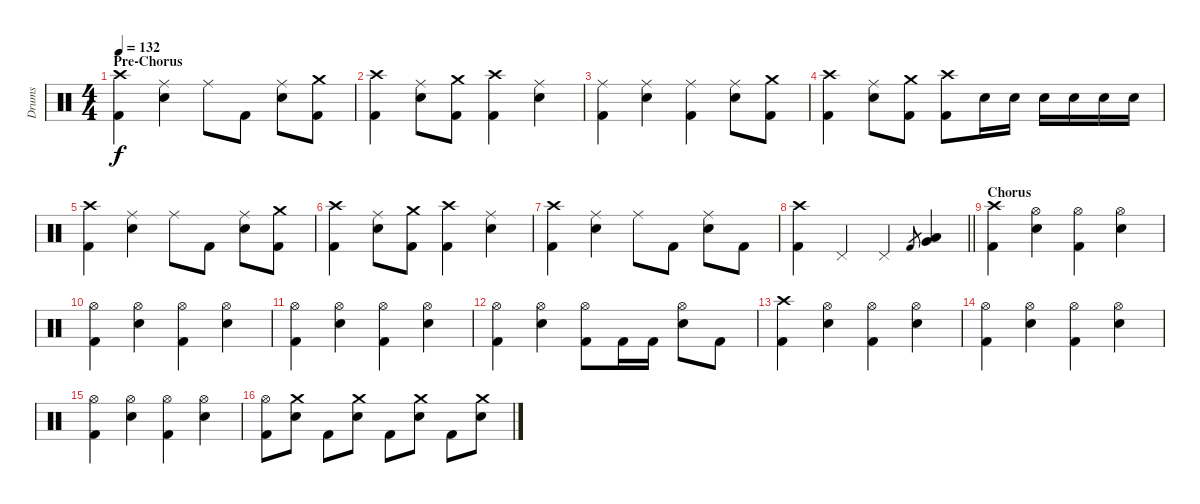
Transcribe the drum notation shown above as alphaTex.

\track ("Drums" "Drums") {instrument percussion}
\staff {score}
\articulation defaults
\ts (4 4)
\section ("" "Pre-Chorus")
\tempo 132
\clef neutral
\ks c
("Crash high (hit)" "Kick (hit) 2").4{dy f} ("Ride (middle)" "Snare (hit) 2").4 "Ride (middle)".8 "Kick (hit) 2".8 ("Ride (middle)" "Snare (hit) 2").8 ("Crash medium (hit)" "Kick (hit) 2").8 |
("Crash high (hit)" "Kick (hit) 2").4 ("Ride (middle)" "Snare (hit) 2").8 ("Crash medium (hit)" "Kick (hit) 2").8 ("Crash high (hit)" "Kick (hit) 2").4 ("Ride (middle)" "Snare (hit) 2").4 |
("Ride (middle)" "Kick (hit) 2").4 ("Ride (middle)" "Snare (hit) 2").4 ("Ride (middle)" "Kick (hit) 2").4 ("Ride (middle)" "Snare (hit) 2").8 ("Crash medium (hit)" "Kick (hit) 2").8 |
("Crash high (hit)" "Kick (hit) 2").4 ("Ride (middle)" "Snare (hit) 2").8 ("Crash medium (hit)" "Kick (hit) 2").8 ("Crash high (hit)" "Kick (hit) 2").8 "Snare (hit) 2".16 "Snare (hit) 2".16 "Snare (hit) 2".16 "Snare (hit) 2".16 "Snare (hit) 2".16 "Snare (hit) 2".16 |
("Crash high (hit)" "Kick (hit) 2").4 ("Ride (middle)" "Snare (hit) 2").4 "Ride (middle)".8 "Kick (hit) 2".8 ("Ride (middle)" "Snare (hit) 2").8 ("Crash medium (hit)" "Kick (hit) 2").8 |
("Crash high (hit)" "Kick (hit) 2").4 ("Ride (middle)" "Snare (hit) 2").8 ("Crash medium (hit)" "Kick (hit) 2").8 ("Crash high (hit)" "Kick (hit) 2").4 ("Ride (middle)" "Snare (hit) 2").4 |
("Crash high (hit)" "Kick (hit) 2").4 ("Ride (middle)" "Snare (hit) 2").4 "Ride (middle)".8 "Kick (hit) 2".8 ("Ride (middle)" "Snare (hit) 2").8 "Kick (hit) 2".8 |
\barLineRight lightlight
("Crash high (hit)" "Kick (hit) 2").4 "Pedal Hi-Hat (hit)".4 "Pedal Hi-Hat (hit)".4 "Kick (hit) 2".8{gr} ("Very Low Tom (hit)" "Low Tom (hit)").4 |
\section ("" "Chorus")
("Crash high (hit)" "Kick (hit) 2").4 ("Hi-Hat (open)" "Snare (hit) 2").4 ("Hi-Hat (open)" "Kick (hit) 2").4 ("Hi-Hat (open)" "Snare (hit) 2").4 |
("Hi-Hat (open)" "Kick (hit) 2").4 ("Hi-Hat (open)" "Snare (hit) 2").4 ("Hi-Hat (open)" "Kick (hit) 2").4 ("Hi-Hat (open)" "Snare (hit) 2").4 |
("Hi-Hat (open)" "Kick (hit) 2").4 ("Hi-Hat (open)" "Snare (hit) 2").4 ("Hi-Hat (open)" "Kick (hit) 2").4 ("Hi-Hat (open)" "Snare (hit) 2").4 |
("Hi-Hat (open)" "Kick (hit) 2").4 ("Hi-Hat (open)" "Snare (hit) 2").4 ("Hi-Hat (open)" "Kick (hit) 2").8 "Kick (hit) 2".16 "Kick (hit) 2".16 ("Hi-Hat (open)" "Snare (hit) 2").8 "Kick (hit) 2".8 |
("Crash high (hit)" "Kick (hit) 2").4 ("Hi-Hat (open)" "Snare (hit) 2").4 ("Hi-Hat (open)" "Kick (hit) 2").4 ("Hi-Hat (open)" "Snare (hit) 2").4 |
("Hi-Hat (open)" "Kick (hit) 2").4 ("Hi-Hat (open)" "Snare (hit) 2").4 ("Hi-Hat (open)" "Kick (hit) 2").4 ("Hi-Hat (open)" "Snare (hit) 2").4 |
("Hi-Hat (open)" "Kick (hit) 2").4 ("Hi-Hat (open)" "Snare (hit) 2").4 ("Hi-Hat (open)" "Kick (hit) 2").4 ("Hi-Hat (open)" "Snare (hit) 2").4 |
("Hi-Hat (open)" "Kick (hit) 2").8 ("Crash medium (hit)" "Snare (hit) 2").8 "Kick (hit) 2".8 ("Crash medium (hit)" "Snare (hit) 2").8 "Kick (hit) 2".8 ("Crash medium (hit)" "Snare (hit) 2").8 "Kick (hit) 2".8 ("Crash medium (hit)" "Snare (hit) 2").8
